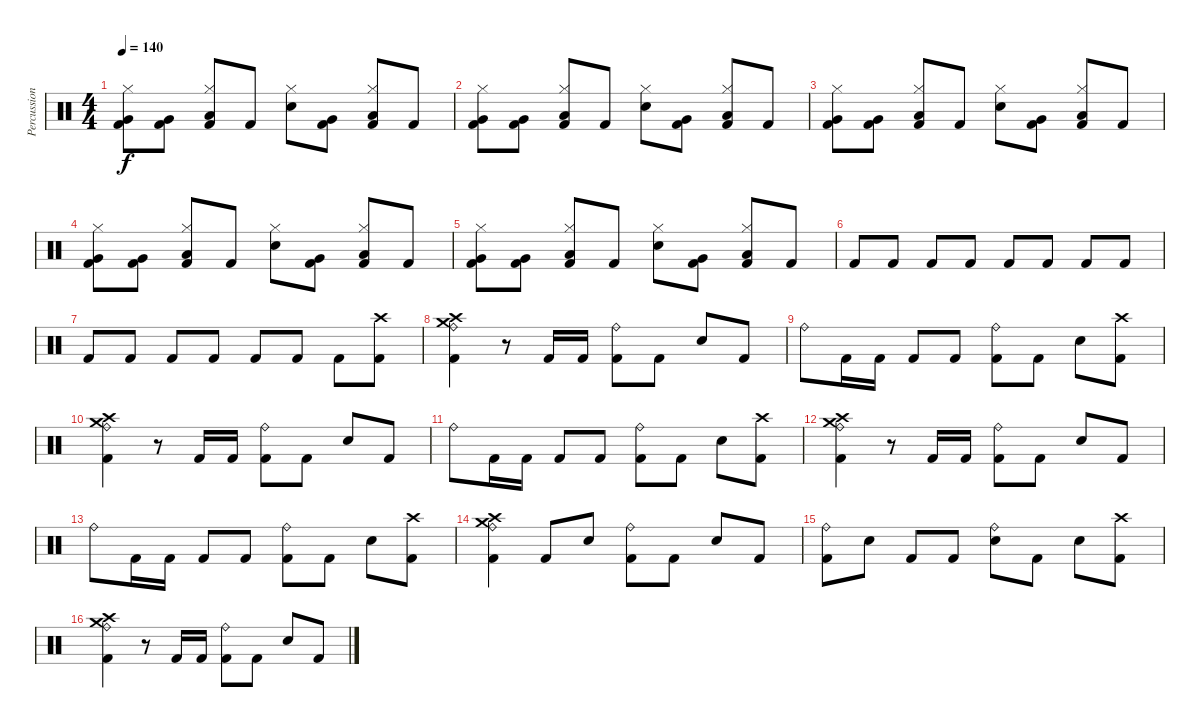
\track ("Percussion" "Percussion") {instrument percussion}
\staff {score}
\articulation defaults
\ts (4 4)
\tempo 140
\clef neutral
\ks c
("Very Low Tom (hit)" "Kick (hit) 2" "Hi-Hat (closed)").8{dy f} ("Very Low Tom (hit)" "Kick (hit) 2").8 ("Low Floor Tom (hit)" "Kick (hit) 2" "Hi-Hat (closed)").8 "Kick (hit) 2".8 ("Electric Snare (hit)" "Hi-Hat (closed)").8 ("Very Low Tom (hit)" "Kick (hit) 2").8 ("Low Floor Tom (hit)" "Kick (hit) 2" "Hi-Hat (closed)").8 "Kick (hit) 2".8 |
("Very Low Tom (hit)" "Kick (hit) 2" "Hi-Hat (closed)").8 ("Very Low Tom (hit)" "Kick (hit) 2").8 ("Low Floor Tom (hit)" "Kick (hit) 2" "Hi-Hat (closed)").8 "Kick (hit) 2".8 ("Electric Snare (hit)" "Hi-Hat (closed)").8 ("Very Low Tom (hit)" "Kick (hit) 2").8 ("Low Floor Tom (hit)" "Kick (hit) 2" "Hi-Hat (closed)").8 "Kick (hit) 2".8 |
("Very Low Tom (hit)" "Kick (hit) 2" "Hi-Hat (closed)").8 ("Very Low Tom (hit)" "Kick (hit) 2").8 ("Low Floor Tom (hit)" "Kick (hit) 2" "Hi-Hat (closed)").8 "Kick (hit) 2".8 ("Electric Snare (hit)" "Hi-Hat (closed)").8 ("Very Low Tom (hit)" "Kick (hit) 2").8 ("Low Floor Tom (hit)" "Kick (hit) 2" "Hi-Hat (closed)").8 "Kick (hit) 2".8 |
("Very Low Tom (hit)" "Kick (hit) 2" "Hi-Hat (closed)").8 ("Very Low Tom (hit)" "Kick (hit) 2").8 ("Low Floor Tom (hit)" "Kick (hit) 2" "Hi-Hat (closed)").8 "Kick (hit) 2".8 ("Electric Snare (hit)" "Hi-Hat (closed)").8 ("Very Low Tom (hit)" "Kick (hit) 2").8 ("Low Floor Tom (hit)" "Kick (hit) 2" "Hi-Hat (closed)").8 "Kick (hit) 2".8 |
("Very Low Tom (hit)" "Kick (hit) 2" "Hi-Hat (closed)").8 ("Very Low Tom (hit)" "Kick (hit) 2").8 ("Low Floor Tom (hit)" "Kick (hit) 2" "Hi-Hat (closed)").8 "Kick (hit) 2".8 ("Electric Snare (hit)" "Hi-Hat (closed)").8 ("Very Low Tom (hit)" "Kick (hit) 2").8 ("Low Floor Tom (hit)" "Kick (hit) 2" "Hi-Hat (closed)").8 "Kick (hit) 2".8 |
"Kick (hit) 2".8 "Kick (hit) 2".8 "Kick (hit) 2".8 "Kick (hit) 2".8 "Kick (hit) 2".8 "Kick (hit) 2".8 "Kick (hit) 2".8 "Kick (hit) 2".8 |
"Kick (hit) 2".8 "Kick (hit) 2".8 "Kick (hit) 2".8 "Kick (hit) 2".8 "Kick (hit) 2".8 "Kick (hit) 2".8 "Kick (hit) 2".8 ("Crash high (hit)" "Kick (hit) 2").8 |
("Crash medium (hit)" "Crash high (hit)" "Kick (hit) 2" "Ride (bell)").4 r.8 "Kick (hit) 2".16 "Kick (hit) 2".16 ("Kick (hit) 2" "Ride (bell)").8 "Kick (hit) 2".8 "Electric Snare (hit)".8 "Kick (hit) 2".8 |
"Ride (bell)".8 "Kick (hit) 2".16 "Kick (hit) 2".16 "Kick (hit) 2".8 "Kick (hit) 2".8 ("Kick (hit) 2" "Ride (bell)").8 "Kick (hit) 2".8 "Electric Snare (hit)".8 ("Crash high (hit)" "Kick (hit) 2").8 |
("Crash medium (hit)" "Crash high (hit)" "Kick (hit) 2" "Ride (bell)").4 r.8 "Kick (hit) 2".16 "Kick (hit) 2".16 ("Kick (hit) 2" "Ride (bell)").8 "Kick (hit) 2".8 "Electric Snare (hit)".8 "Kick (hit) 2".8 |
"Ride (bell)".8 "Kick (hit) 2".16 "Kick (hit) 2".16 "Kick (hit) 2".8 "Kick (hit) 2".8 ("Kick (hit) 2" "Ride (bell)").8 "Kick (hit) 2".8 "Electric Snare (hit)".8 ("Crash high (hit)" "Kick (hit) 2").8 |
("Crash medium (hit)" "Crash high (hit)" "Kick (hit) 2" "Ride (bell)").4 r.8 "Kick (hit) 2".16 "Kick (hit) 2".16 ("Kick (hit) 2" "Ride (bell)").8 "Kick (hit) 2".8 "Electric Snare (hit)".8 "Kick (hit) 2".8 |
"Ride (bell)".8 "Kick (hit) 2".16 "Kick (hit) 2".16 "Kick (hit) 2".8 "Kick (hit) 2".8 ("Kick (hit) 2" "Ride (bell)").8 "Kick (hit) 2".8 "Electric Snare (hit)".8 ("Crash high (hit)" "Kick (hit) 2").8 |
("Crash medium (hit)" "Crash high (hit)" "Kick (hit) 2" "Ride (bell)").4 "Kick (hit) 2".8 "Electric Snare (hit)".8 ("Kick (hit) 2" "Ride (bell)").8 "Kick (hit) 2".8 "Electric Snare (hit)".8 "Kick (hit) 2".8 |
("Kick (hit) 2" "Ride (bell)").8 "Electric Snare (hit)".8 "Kick (hit) 2".8 "Kick (hit) 2".8 ("Electric Snare (hit)" "Ride (bell)").8 "Kick (hit) 2".8 "Electric Snare (hit)".8 ("Crash high (hit)" "Kick (hit) 2").8 |
("Crash medium (hit)" "Crash high (hit)" "Kick (hit) 2" "Ride (bell)").4 r.8 "Kick (hit) 2".16 "Kick (hit) 2".16 ("Kick (hit) 2" "Ride (bell)").8 "Kick (hit) 2".8 "Electric Snare (hit)".8 "Kick (hit) 2".8
